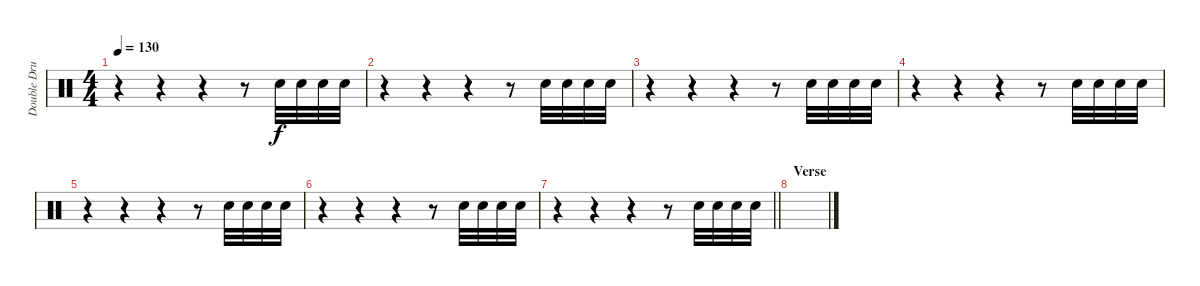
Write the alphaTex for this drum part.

\track ("Double Drums" "Double Dru") {instrument percussion}
\staff {score}
\articulation defaults
\ts (4 4)
\tempo 130
\clef neutral
\ks c
r.4{dy f} r.4 r.4 r.8 "Snare (hit) 2".32 "Snare (hit) 2".32 "Snare (hit) 2".32 "Snare (hit) 2".32 |
r.4 r.4 r.4 r.8 "Snare (hit) 2".32 "Snare (hit) 2".32 "Snare (hit) 2".32 "Snare (hit) 2".32 |
r.4 r.4 r.4 r.8 "Snare (hit) 2".32 "Snare (hit) 2".32 "Snare (hit) 2".32 "Snare (hit) 2".32 |
r.4 r.4 r.4 r.8 "Snare (hit) 2".32 "Snare (hit) 2".32 "Snare (hit) 2".32 "Snare (hit) 2".32 |
r.4 r.4 r.4 r.8 "Snare (hit) 2".32 "Snare (hit) 2".32 "Snare (hit) 2".32 "Snare (hit) 2".32 |
r.4 r.4 r.4 r.8 "Snare (hit) 2".32 "Snare (hit) 2".32 "Snare (hit) 2".32 "Snare (hit) 2".32 |
\barLineRight lightlight
r.4 r.4 r.4 r.8 "Snare (hit) 2".32 "Snare (hit) 2".32 "Snare (hit) 2".32 "Snare (hit) 2".32 |
\section ("" "Verse")
